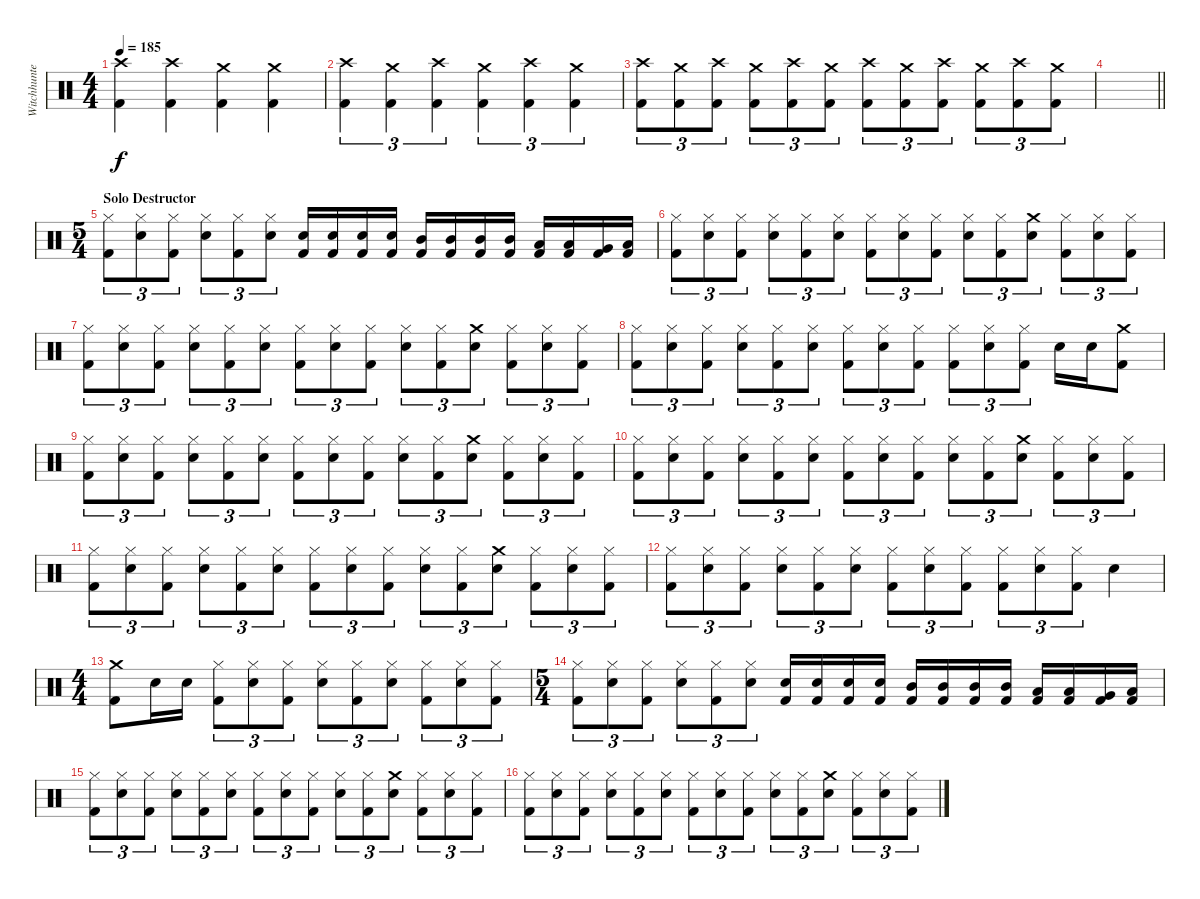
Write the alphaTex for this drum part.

\track ("Witchhunter" "Witchhunte") {instrument percussion}
\staff {score}
\articulation defaults
\ts (4 4)
\tempo 185
\clef neutral
\ks c
("Crash high (hit)" "Kick (hit) 2").4{dy f} ("Crash high (hit)" "Kick (hit) 2").4 ("Crash medium (hit)" "Kick (hit) 2").4 ("Crash medium (hit)" "Kick (hit) 2").4 |
("Crash high (hit)" "Kick (hit) 2").4{tu (3 2)} ("Crash medium (hit)" "Kick (hit) 2").4{tu (3 2)} ("Crash high (hit)" "Kick (hit) 2").4{tu (3 2)} ("Crash medium (hit)" "Kick (hit) 2").4{tu (3 2)} ("Crash high (hit)" "Kick (hit) 2").4{tu (3 2)} ("Crash medium (hit)" "Kick (hit) 2").4{tu (3 2)} |
("Crash high (hit)" "Kick (hit) 2").8{tu (3 2)} ("Crash medium (hit)" "Kick (hit) 2").8{tu (3 2)} ("Crash high (hit)" "Kick (hit) 2").8{tu (3 2)} ("Crash medium (hit)" "Kick (hit) 2").8{tu (3 2)} ("Crash high (hit)" "Kick (hit) 2").8{tu (3 2)} ("Crash medium (hit)" "Kick (hit) 2").8{tu (3 2)} ("Crash high (hit)" "Kick (hit) 2").8{tu (3 2)} ("Crash medium (hit)" "Kick (hit) 2").8{tu (3 2)} ("Crash high (hit)" "Kick (hit) 2").8{tu (3 2)} ("Crash medium (hit)" "Kick (hit) 2").8{tu (3 2)} ("Crash high (hit)" "Kick (hit) 2").8{tu (3 2)} ("Crash medium (hit)" "Kick (hit) 2").8{tu (3 2)} |
\barLineRight lightlight
|
\ts (5 4)
\section ("" "Solo Destructor")
("Hi-Hat (closed)" "Kick (hit) 2").8{tu (3 2)} ("Hi-Hat (closed)" "Snare (hit) 2").8{tu (3 2)} ("Hi-Hat (closed)" "Kick (hit) 2").8{tu (3 2)} ("Hi-Hat (closed)" "Snare (hit) 2").8{tu (3 2)} ("Hi-Hat (closed)" "Kick (hit) 2").8{tu (3 2)} ("Hi-Hat (closed)" "Snare (hit) 2").8{tu (3 2)} ("Snare (hit) 2" "Kick (hit) 2").16 ("Snare (hit) 2" "Kick (hit) 2").16 ("Snare (hit) 2" "Kick (hit) 2").16 ("Snare (hit) 2" "Kick (hit) 2").16 ("Mid Tom (hit)" "Kick (hit) 2").16 ("Mid Tom (hit)" "Kick (hit) 2").16 ("Mid Tom (hit)" "Kick (hit) 2").16 ("Mid Tom (hit)" "Kick (hit) 2").16 ("Low Tom (hit)" "Kick (hit) 2").16 ("Low Tom (hit)" "Kick (hit) 2").16 ("Very Low Tom (hit)" "Kick (hit) 2").16 ("Low Floor Tom (hit)" "Kick (hit) 2").16 |
("Hi-Hat (closed)" "Kick (hit) 2").8{tu (3 2)} ("Hi-Hat (closed)" "Snare (hit) 2").8{tu (3 2)} ("Hi-Hat (closed)" "Kick (hit) 2").8{tu (3 2)} ("Hi-Hat (closed)" "Snare (hit) 2").8{tu (3 2)} ("Hi-Hat (closed)" "Kick (hit) 2").8{tu (3 2)} ("Hi-Hat (closed)" "Snare (hit) 2").8{tu (3 2)} ("Hi-Hat (closed)" "Kick (hit) 2").8{tu (3 2)} ("Hi-Hat (closed)" "Snare (hit) 2").8{tu (3 2)} ("Hi-Hat (closed)" "Kick (hit) 2").8{tu (3 2)} ("Hi-Hat (closed)" "Snare (hit) 2").8{tu (3 2)} ("Hi-Hat (closed)" "Kick (hit) 2").8{tu (3 2)} ("Crash medium (hit)" "Snare (hit) 2").8{tu (3 2)} ("Hi-Hat (closed)" "Kick (hit) 2").8{tu (3 2)} ("Hi-Hat (closed)" "Snare (hit) 2").8{tu (3 2)} ("Hi-Hat (closed)" "Kick (hit) 2").8{tu (3 2)} |
("Hi-Hat (closed)" "Kick (hit) 2").8{tu (3 2)} ("Hi-Hat (closed)" "Snare (hit) 2").8{tu (3 2)} ("Hi-Hat (closed)" "Kick (hit) 2").8{tu (3 2)} ("Hi-Hat (closed)" "Snare (hit) 2").8{tu (3 2)} ("Hi-Hat (closed)" "Kick (hit) 2").8{tu (3 2)} ("Hi-Hat (closed)" "Snare (hit) 2").8{tu (3 2)} ("Hi-Hat (closed)" "Kick (hit) 2").8{tu (3 2)} ("Hi-Hat (closed)" "Snare (hit) 2").8{tu (3 2)} ("Hi-Hat (closed)" "Kick (hit) 2").8{tu (3 2)} ("Hi-Hat (closed)" "Snare (hit) 2").8{tu (3 2)} ("Hi-Hat (closed)" "Kick (hit) 2").8{tu (3 2)} ("Crash medium (hit)" "Snare (hit) 2").8{tu (3 2)} ("Hi-Hat (closed)" "Kick (hit) 2").8{tu (3 2)} ("Hi-Hat (closed)" "Snare (hit) 2").8{tu (3 2)} ("Hi-Hat (closed)" "Kick (hit) 2").8{tu (3 2)} |
("Hi-Hat (closed)" "Kick (hit) 2").8{tu (3 2)} ("Hi-Hat (closed)" "Snare (hit) 2").8{tu (3 2)} ("Hi-Hat (closed)" "Kick (hit) 2").8{tu (3 2)} ("Hi-Hat (closed)" "Snare (hit) 2").8{tu (3 2)} ("Hi-Hat (closed)" "Kick (hit) 2").8{tu (3 2)} ("Hi-Hat (closed)" "Snare (hit) 2").8{tu (3 2)} ("Hi-Hat (closed)" "Kick (hit) 2").8{tu (3 2)} ("Hi-Hat (closed)" "Snare (hit) 2").8{tu (3 2)} ("Hi-Hat (closed)" "Kick (hit) 2").8{tu (3 2)} ("Hi-Hat (closed)" "Kick (hit) 2").8{tu (3 2)} ("Hi-Hat (closed)" "Snare (hit) 2").8{tu (3 2)} ("Hi-Hat (closed)" "Kick (hit) 2").8{tu (3 2)} "Snare (hit) 2".16 "Snare (hit) 2".16 ("Crash medium (hit)" "Kick (hit) 2").8 |
("Hi-Hat (closed)" "Kick (hit) 2").8{tu (3 2)} ("Hi-Hat (closed)" "Snare (hit) 2").8{tu (3 2)} ("Hi-Hat (closed)" "Kick (hit) 2").8{tu (3 2)} ("Hi-Hat (closed)" "Snare (hit) 2").8{tu (3 2)} ("Hi-Hat (closed)" "Kick (hit) 2").8{tu (3 2)} ("Hi-Hat (closed)" "Snare (hit) 2").8{tu (3 2)} ("Hi-Hat (closed)" "Kick (hit) 2").8{tu (3 2)} ("Hi-Hat (closed)" "Snare (hit) 2").8{tu (3 2)} ("Hi-Hat (closed)" "Kick (hit) 2").8{tu (3 2)} ("Hi-Hat (closed)" "Snare (hit) 2").8{tu (3 2)} ("Hi-Hat (closed)" "Kick (hit) 2").8{tu (3 2)} ("Crash medium (hit)" "Snare (hit) 2").8{tu (3 2)} ("Hi-Hat (closed)" "Kick (hit) 2").8{tu (3 2)} ("Hi-Hat (closed)" "Snare (hit) 2").8{tu (3 2)} ("Hi-Hat (closed)" "Kick (hit) 2").8{tu (3 2)} |
("Hi-Hat (closed)" "Kick (hit) 2").8{tu (3 2)} ("Hi-Hat (closed)" "Snare (hit) 2").8{tu (3 2)} ("Hi-Hat (closed)" "Kick (hit) 2").8{tu (3 2)} ("Hi-Hat (closed)" "Snare (hit) 2").8{tu (3 2)} ("Hi-Hat (closed)" "Kick (hit) 2").8{tu (3 2)} ("Hi-Hat (closed)" "Snare (hit) 2").8{tu (3 2)} ("Hi-Hat (closed)" "Kick (hit) 2").8{tu (3 2)} ("Hi-Hat (closed)" "Snare (hit) 2").8{tu (3 2)} ("Hi-Hat (closed)" "Kick (hit) 2").8{tu (3 2)} ("Hi-Hat (closed)" "Snare (hit) 2").8{tu (3 2)} ("Hi-Hat (closed)" "Kick (hit) 2").8{tu (3 2)} ("Crash medium (hit)" "Snare (hit) 2").8{tu (3 2)} ("Hi-Hat (closed)" "Kick (hit) 2").8{tu (3 2)} ("Hi-Hat (closed)" "Snare (hit) 2").8{tu (3 2)} ("Hi-Hat (closed)" "Kick (hit) 2").8{tu (3 2)} |
("Hi-Hat (closed)" "Kick (hit) 2").8{tu (3 2)} ("Hi-Hat (closed)" "Snare (hit) 2").8{tu (3 2)} ("Hi-Hat (closed)" "Kick (hit) 2").8{tu (3 2)} ("Hi-Hat (closed)" "Snare (hit) 2").8{tu (3 2)} ("Hi-Hat (closed)" "Kick (hit) 2").8{tu (3 2)} ("Hi-Hat (closed)" "Snare (hit) 2").8{tu (3 2)} ("Hi-Hat (closed)" "Kick (hit) 2").8{tu (3 2)} ("Hi-Hat (closed)" "Snare (hit) 2").8{tu (3 2)} ("Hi-Hat (closed)" "Kick (hit) 2").8{tu (3 2)} ("Hi-Hat (closed)" "Snare (hit) 2").8{tu (3 2)} ("Hi-Hat (closed)" "Kick (hit) 2").8{tu (3 2)} ("Crash medium (hit)" "Snare (hit) 2").8{tu (3 2)} ("Hi-Hat (closed)" "Kick (hit) 2").8{tu (3 2)} ("Hi-Hat (closed)" "Snare (hit) 2").8{tu (3 2)} ("Hi-Hat (closed)" "Kick (hit) 2").8{tu (3 2)} |
("Hi-Hat (closed)" "Kick (hit) 2").8{tu (3 2)} ("Hi-Hat (closed)" "Snare (hit) 2").8{tu (3 2)} ("Hi-Hat (closed)" "Kick (hit) 2").8{tu (3 2)} ("Hi-Hat (closed)" "Snare (hit) 2").8{tu (3 2)} ("Hi-Hat (closed)" "Kick (hit) 2").8{tu (3 2)} ("Hi-Hat (closed)" "Snare (hit) 2").8{tu (3 2)} ("Hi-Hat (closed)" "Kick (hit) 2").8{tu (3 2)} ("Hi-Hat (closed)" "Snare (hit) 2").8{tu (3 2)} ("Hi-Hat (closed)" "Kick (hit) 2").8{tu (3 2)} ("Hi-Hat (closed)" "Kick (hit) 2").8{tu (3 2)} ("Hi-Hat (closed)" "Snare (hit) 2").8{tu (3 2)} ("Hi-Hat (closed)" "Kick (hit) 2").8{tu (3 2)} "Snare (hit) 2".4 |
\ts (4 4)
("Crash medium (hit)" "Kick (hit) 2").8 "Snare (hit) 2".16 "Snare (hit) 2".16 ("Hi-Hat (closed)" "Kick (hit) 2").8{tu (3 2)} ("Hi-Hat (closed)" "Snare (hit) 2").8{tu (3 2)} ("Hi-Hat (closed)" "Kick (hit) 2").8{tu (3 2)} ("Hi-Hat (closed)" "Snare (hit) 2").8{tu (3 2)} ("Hi-Hat (closed)" "Kick (hit) 2").8{tu (3 2)} ("Hi-Hat (closed)" "Snare (hit) 2").8{tu (3 2)} ("Hi-Hat (closed)" "Kick (hit) 2").8{tu (3 2)} ("Hi-Hat (closed)" "Snare (hit) 2").8{tu (3 2)} ("Hi-Hat (closed)" "Kick (hit) 2").8{tu (3 2)} |
\ts (5 4)
("Hi-Hat (closed)" "Kick (hit) 2").8{tu (3 2)} ("Hi-Hat (closed)" "Snare (hit) 2").8{tu (3 2)} ("Hi-Hat (closed)" "Kick (hit) 2").8{tu (3 2)} ("Hi-Hat (closed)" "Snare (hit) 2").8{tu (3 2)} ("Hi-Hat (closed)" "Kick (hit) 2").8{tu (3 2)} ("Hi-Hat (closed)" "Snare (hit) 2").8{tu (3 2)} ("Snare (hit) 2" "Kick (hit) 2").16 ("Snare (hit) 2" "Kick (hit) 2").16 ("Snare (hit) 2" "Kick (hit) 2").16 ("Snare (hit) 2" "Kick (hit) 2").16 ("Mid Tom (hit)" "Kick (hit) 2").16 ("Mid Tom (hit)" "Kick (hit) 2").16 ("Mid Tom (hit)" "Kick (hit) 2").16 ("Mid Tom (hit)" "Kick (hit) 2").16 ("Low Tom (hit)" "Kick (hit) 2").16 ("Low Tom (hit)" "Kick (hit) 2").16 ("Very Low Tom (hit)" "Kick (hit) 2").16 ("Low Floor Tom (hit)" "Kick (hit) 2").16 |
("Hi-Hat (closed)" "Kick (hit) 2").8{tu (3 2)} ("Hi-Hat (closed)" "Snare (hit) 2").8{tu (3 2)} ("Hi-Hat (closed)" "Kick (hit) 2").8{tu (3 2)} ("Hi-Hat (closed)" "Snare (hit) 2").8{tu (3 2)} ("Hi-Hat (closed)" "Kick (hit) 2").8{tu (3 2)} ("Hi-Hat (closed)" "Snare (hit) 2").8{tu (3 2)} ("Hi-Hat (closed)" "Kick (hit) 2").8{tu (3 2)} ("Hi-Hat (closed)" "Snare (hit) 2").8{tu (3 2)} ("Hi-Hat (closed)" "Kick (hit) 2").8{tu (3 2)} ("Hi-Hat (closed)" "Snare (hit) 2").8{tu (3 2)} ("Hi-Hat (closed)" "Kick (hit) 2").8{tu (3 2)} ("Crash medium (hit)" "Snare (hit) 2").8{tu (3 2)} ("Hi-Hat (closed)" "Kick (hit) 2").8{tu (3 2)} ("Hi-Hat (closed)" "Snare (hit) 2").8{tu (3 2)} ("Hi-Hat (closed)" "Kick (hit) 2").8{tu (3 2)} |
("Hi-Hat (closed)" "Kick (hit) 2").8{tu (3 2)} ("Hi-Hat (closed)" "Snare (hit) 2").8{tu (3 2)} ("Hi-Hat (closed)" "Kick (hit) 2").8{tu (3 2)} ("Hi-Hat (closed)" "Snare (hit) 2").8{tu (3 2)} ("Hi-Hat (closed)" "Kick (hit) 2").8{tu (3 2)} ("Hi-Hat (closed)" "Snare (hit) 2").8{tu (3 2)} ("Hi-Hat (closed)" "Kick (hit) 2").8{tu (3 2)} ("Hi-Hat (closed)" "Snare (hit) 2").8{tu (3 2)} ("Hi-Hat (closed)" "Kick (hit) 2").8{tu (3 2)} ("Hi-Hat (closed)" "Snare (hit) 2").8{tu (3 2)} ("Hi-Hat (closed)" "Kick (hit) 2").8{tu (3 2)} ("Crash medium (hit)" "Snare (hit) 2").8{tu (3 2)} ("Hi-Hat (closed)" "Kick (hit) 2").8{tu (3 2)} ("Hi-Hat (closed)" "Snare (hit) 2").8{tu (3 2)} ("Hi-Hat (closed)" "Kick (hit) 2").8{tu (3 2)}
